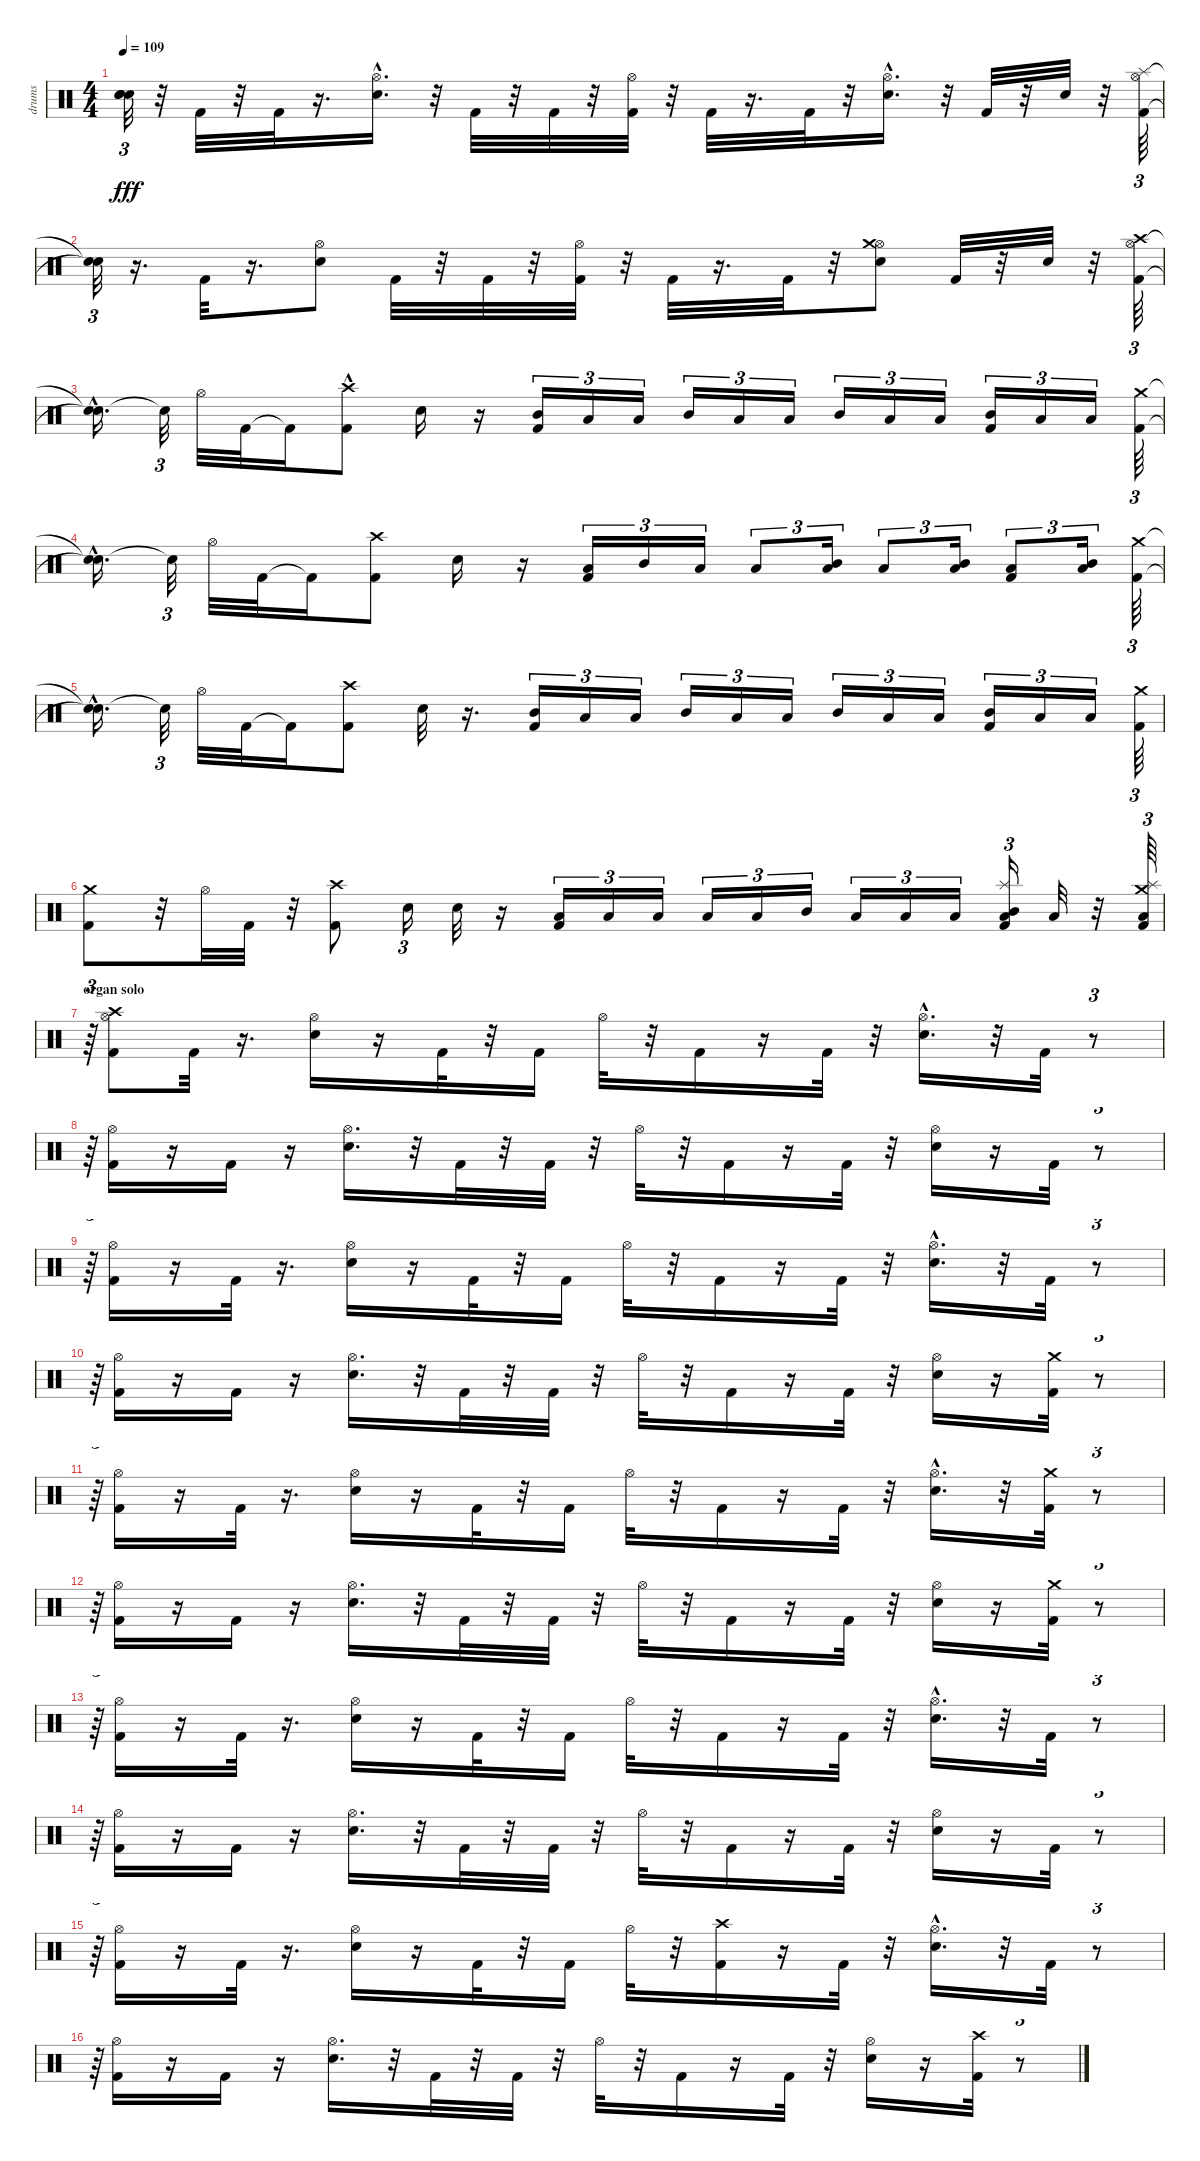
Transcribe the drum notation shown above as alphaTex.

\track ("drums" "drums") {instrument percussion}
\staff {score}
\articulation defaults
\ts (4 4)
\tempo 109
\clef neutral
\ks c
("Snare (hit)"{t} "Snare (hit)"{t} "Snare (hit)"{t}).32{tu (3 2) dy fff} r.32 "Kick (hit) 2".32 r.32 "Kick (hit) 2".32 r.16{d} ("Snare (hit) 2"{hac} "Hi-Hat (open)").16{d} r.32 "Kick (hit) 2".32 r.32 "Kick (hit) 2".32 r.32 ("Kick (hit) 2" "Hi-Hat (open)").32 r.32 "Kick (hit) 2".32 r.16{d} "Kick (hit) 2".32 r.32 ("Snare (hit) 2"{hac} "Hi-Hat (open)").16{d} r.32 "Kick (hit) 2".32 r.32 "Snare (hit) 2".32 r.32 ("Kick (hit) 2" "Hi-Hat (open)" "Splash (hit)").64{tu (3 2)} |
("Snare (hit)"{t} "Snare (hit)"{t}).32{tu (3 2)} r.16{d} "Kick (hit) 2".32 r.16{d} ("Snare (hit) 2" "Hi-Hat (open)").8 "Kick (hit) 2".32 r.32 "Kick (hit) 2".32 r.32 ("Kick (hit) 2" "Hi-Hat (open)").32 r.32 "Kick (hit) 2".32 r.16{d} "Kick (hit) 2".32 r.32 ("Snare (hit) 2" "Hi-Hat (open)" "Crash medium (hit)").8 "Kick (hit) 2".32 r.32 "Snare (hit) 2".32 r.32 ("Kick (hit) 2" "Hi-Hat (open)" "Crash high (hit)").64{tu (3 2)} |
("Snare (hit)"{hac t} "Snare (hit)"{hac t}).16{d} "Snare (hit)"{t}.32{tu (3 2)} "Hi-Hat (open)".32 "Kick (hit) 2".32 "Kick (hit) 2"{t}.16 ("Kick (hit) 2"{hac} "Crash high (hit)"{hac}).8 "Snare (hit) 2".16 r.16 ("Kick (hit) 2" "Mid Tom (hit)").16{tu (3 2)} "Low Tom (hit)".16{tu (3 2)} "Low Floor Tom (hit)".16{tu (3 2)} "Mid Tom (hit)".16{tu (3 2)} "Low Tom (hit)".16{tu (3 2)} "Low Floor Tom (hit)".16{tu (3 2)} "Mid Tom (hit)".16{tu (3 2)} "Low Tom (hit)".16{tu (3 2)} "Low Floor Tom (hit)".16{tu (3 2)} ("Kick (hit) 2" "Mid Tom (hit)").16{tu (3 2)} "Low Tom (hit)".16{tu (3 2)} "Low Floor Tom (hit)".16{tu (3 2)} ("Kick (hit) 2" "Crash medium (hit)").64{tu (3 2)} |
("Snare (hit)"{hac t} "Snare (hit)"{t}).16{d} "Snare (hit)"{t}.32{tu (3 2)} "Hi-Hat (open)".32 "Kick (hit) 2".32 "Kick (hit) 2"{t}.16 ("Kick (hit) 2" "Crash high (hit)").8 "Snare (hit) 2".16 r.16 ("Kick (hit) 2" "Low Tom (hit)").16{tu (3 2)} "Mid Tom (hit)".16{tu (3 2)} "Low Floor Tom (hit)".16{tu (3 2)} "Low Tom (hit)".8{tu (3 2)} ("Low Floor Tom (hit)" "Mid Tom (hit)").16{tu (3 2)} "Low Tom (hit)".8{tu (3 2)} ("Low Floor Tom (hit)" "Mid Tom (hit)").16{tu (3 2)} ("Kick (hit) 2" "Low Tom (hit)").8{tu (3 2)} ("Low Floor Tom (hit)" "Mid Tom (hit)").16{tu (3 2)} ("Kick (hit) 2" "Crash medium (hit)").64{tu (3 2)} |
("Snare (hit)"{hac t} "Snare (hit)"{t}).16{d} "Snare (hit)"{t}.32{tu (3 2)} "Hi-Hat (open)".32 "Kick (hit) 2".32 "Kick (hit) 2"{t}.16 ("Kick (hit) 2" "Crash high (hit)").8 "Snare (hit) 2".32 r.16{d} ("Kick (hit) 2" "Mid Tom (hit)").16{tu (3 2)} "Low Tom (hit)".16{tu (3 2)} "Low Floor Tom (hit)".16{tu (3 2)} "Mid Tom (hit)".16{tu (3 2)} "Low Tom (hit)".16{tu (3 2)} "Low Floor Tom (hit)".16{tu (3 2)} "Mid Tom (hit)".16{tu (3 2)} "Low Tom (hit)".16{tu (3 2)} "Low Floor Tom (hit)".16{tu (3 2)} ("Kick (hit) 2" "Mid Tom (hit)").16{tu (3 2)} "Low Tom (hit)".16{tu (3 2)} "Low Floor Tom (hit)".16{tu (3 2)} ("Kick (hit) 2" "Crash medium (hit)").64{tu (3 2)} |
("Kick (hit) 2" "Crash medium (hit)").8 r.32 "Hi-Hat (open)".32 "Kick (hit) 2".32 r.32 ("Kick (hit) 2" "Crash high (hit)").8 "Snare (hit) 2".16{tu (3 2)} "Snare (hit) 2".32 r.16 ("Kick (hit) 2" "Low Tom (hit)").16{tu (3 2)} "Low Tom (hit)".16{tu (3 2)} "Low Tom (hit)".16{tu (3 2)} "Low Tom (hit)".16{tu (3 2)} "Low Floor Tom (hit)".16{tu (3 2)} "Mid Tom (hit)".16{tu (3 2)} "Low Tom (hit)".16{tu (3 2)} "Low Floor Tom (hit)".16{tu (3 2)} "Low Tom (hit)".16{tu (3 2)} ("Kick (hit) 2" "Low Floor Tom (hit)" "Mid Tom (hit)" "Splash (hit)").16{tu (3 2)} "Low Tom (hit)".32 r.32 ("Kick (hit) 2" "Low Floor Tom (hit)" "Crash medium (hit)" "Splash (hit)").64{tu (3 2)} |
\section ("" "organ solo")
r.64{tu (3 2)} ("Kick (hit) 2" "Hi-Hat (open)" "Crash high (hit)").8 "Kick (hit) 2".32 r.16{d} ("Snare (hit) 2" "Hi-Hat (open)").16 r.16 "Kick (hit) 2".32 r.32 "Kick (hit) 2".16 "Hi-Hat (open)".32 r.32 "Kick (hit) 2".16 r.16 "Kick (hit) 2".32 r.32 ("Snare (hit) 2"{hac} "Hi-Hat (open)").16{d} r.32 "Kick (hit) 2".32 r.8{tu (3 2)} |
r.64{tu (3 2)} ("Kick (hit) 2" "Hi-Hat (open)").16 r.16 "Kick (hit) 2".16 r.16 ("Snare (hit) 2" "Hi-Hat (open)").16{d} r.32 "Kick (hit) 2".32 r.32 "Kick (hit) 2".32 r.32 "Hi-Hat (open)".32 r.32 "Kick (hit) 2".16 r.16 "Kick (hit) 2".32 r.32 ("Snare (hit) 2" "Hi-Hat (open)").16 r.16 "Kick (hit) 2".32 r.8{tu (3 2)} |
r.64{tu (3 2)} ("Kick (hit) 2" "Hi-Hat (open)").16 r.16 "Kick (hit) 2".32 r.16{d} ("Snare (hit) 2" "Hi-Hat (open)").16 r.16 "Kick (hit) 2".32 r.32 "Kick (hit) 2".16 "Hi-Hat (open)".32 r.32 "Kick (hit) 2".16 r.16 "Kick (hit) 2".32 r.32 ("Snare (hit) 2"{hac} "Hi-Hat (open)").16{d} r.32 "Kick (hit) 2".32 r.8{tu (3 2)} |
r.64{tu (3 2)} ("Kick (hit) 2" "Hi-Hat (open)").16 r.16 "Kick (hit) 2".16 r.16 ("Snare (hit) 2" "Hi-Hat (open)").16{d} r.32 "Kick (hit) 2".32 r.32 "Kick (hit) 2".32 r.32 "Hi-Hat (open)".32 r.32 "Kick (hit) 2".16 r.16 "Kick (hit) 2".32 r.32 ("Snare (hit) 2" "Hi-Hat (open)").16 r.16 ("Kick (hit) 2" "Crash medium (hit)").32 r.8{tu (3 2)} |
r.64{tu (3 2)} ("Kick (hit) 2" "Hi-Hat (open)").16 r.16 "Kick (hit) 2".32 r.16{d} ("Snare (hit) 2" "Hi-Hat (open)").16 r.16 "Kick (hit) 2".32 r.32 "Kick (hit) 2".16 "Hi-Hat (open)".32 r.32 "Kick (hit) 2".16 r.16 "Kick (hit) 2".32 r.32 ("Snare (hit) 2"{hac} "Hi-Hat (open)").16{d} r.32 ("Kick (hit) 2" "Crash medium (hit)").32 r.8{tu (3 2)} |
r.64{tu (3 2)} ("Kick (hit) 2" "Hi-Hat (open)").16 r.16 "Kick (hit) 2".16 r.16 ("Snare (hit) 2" "Hi-Hat (open)").16{d} r.32 "Kick (hit) 2".32 r.32 "Kick (hit) 2".32 r.32 "Hi-Hat (open)".32 r.32 "Kick (hit) 2".16 r.16 "Kick (hit) 2".32 r.32 ("Snare (hit) 2" "Hi-Hat (open)").16 r.16 ("Kick (hit) 2" "Crash medium (hit)").32 r.8{tu (3 2)} |
r.64{tu (3 2)} ("Kick (hit) 2" "Hi-Hat (open)").16 r.16 "Kick (hit) 2".32 r.16{d} ("Snare (hit) 2" "Hi-Hat (open)").16 r.16 "Kick (hit) 2".32 r.32 "Kick (hit) 2".16 "Hi-Hat (open)".32 r.32 "Kick (hit) 2".16 r.16 "Kick (hit) 2".32 r.32 ("Snare (hit) 2"{hac} "Hi-Hat (open)").16{d} r.32 "Kick (hit) 2".32 r.8{tu (3 2)} |
r.64{tu (3 2)} ("Kick (hit) 2" "Hi-Hat (open)").16 r.16 "Kick (hit) 2".16 r.16 ("Snare (hit) 2" "Hi-Hat (open)").16{d} r.32 "Kick (hit) 2".32 r.32 "Kick (hit) 2".32 r.32 "Hi-Hat (open)".32 r.32 "Kick (hit) 2".16 r.16 "Kick (hit) 2".32 r.32 ("Snare (hit) 2" "Hi-Hat (open)").16 r.16 "Kick (hit) 2".32 r.8{tu (3 2)} |
r.64{tu (3 2)} ("Kick (hit) 2" "Hi-Hat (open)").16 r.16 "Kick (hit) 2".32 r.16{d} ("Snare (hit) 2" "Hi-Hat (open)").16 r.16 "Kick (hit) 2".32 r.32 "Kick (hit) 2".16 "Hi-Hat (open)".32 r.32 ("Kick (hit) 2" "Crash high (hit)").16 r.16 "Kick (hit) 2".32 r.32 ("Snare (hit) 2"{hac} "Hi-Hat (open)").16{d} r.32 "Kick (hit) 2".32 r.8{tu (3 2)} |
r.64{tu (3 2)} ("Kick (hit) 2" "Hi-Hat (open)").16 r.16 "Kick (hit) 2".16 r.16 ("Snare (hit) 2" "Hi-Hat (open)").16{d} r.32 "Kick (hit) 2".32 r.32 "Kick (hit) 2".32 r.32 "Hi-Hat (open)".32 r.32 "Kick (hit) 2".16 r.16 "Kick (hit) 2".32 r.32 ("Snare (hit) 2" "Hi-Hat (open)").16 r.16 ("Kick (hit) 2" "Crash high (hit)").32 r.8{tu (3 2)}
